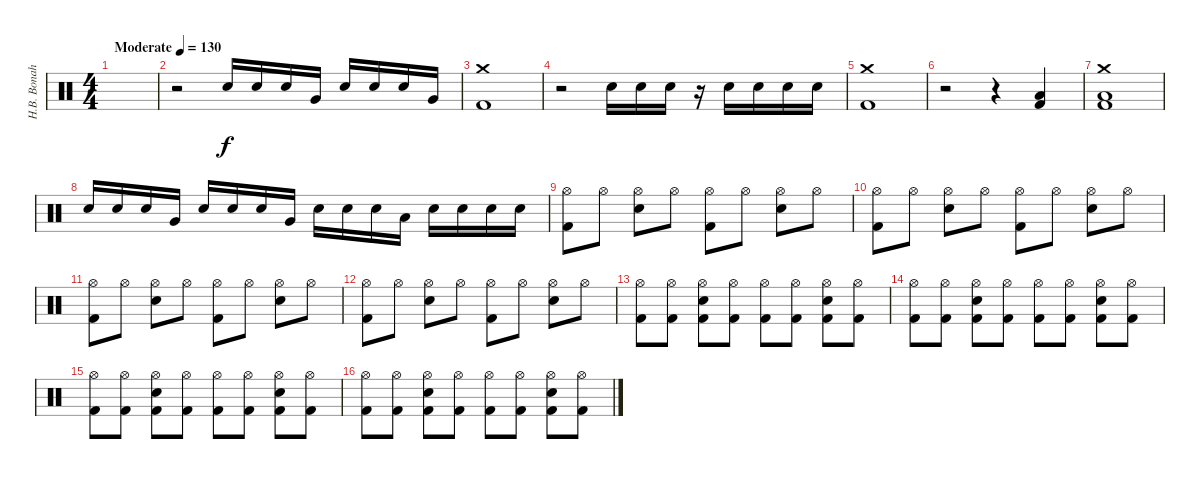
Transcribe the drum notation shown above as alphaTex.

\track ("H.B. Bonah" "H.B. Bonah") {instrument percussion}
\staff {score}
\articulation defaults
\ts (4 4)
\tempo (130 "Moderate")
\clef neutral
\ks c
|
r.2 "Electric Snare (hit)".16 "Electric Snare (hit)".16 "Electric Snare (hit)".16 "Very Low Tom (hit)".16 "Electric Snare (hit)".16 "Electric Snare (hit)".16 "Electric Snare (hit)".16 "Very Low Tom (hit)".16 |
("Crash medium (hit)" "Kick (hit) 2").1 |
r.2 "Electric Snare (hit)".16 "Electric Snare (hit)".16 "Electric Snare (hit)".16 r.16 "Electric Snare (hit)".16 "Electric Snare (hit)".16 "Electric Snare (hit)".16 "Electric Snare (hit)".16 |
("Crash medium (hit)" "Kick (hit) 2").1 |
r.2 r.4 ("Low Tom (hit)" "Kick (hit) 2").4 |
("Crash medium (hit)" "Low Floor Tom (hit)" "Kick (hit) 2").1 |
"Electric Snare (hit)".16 "Electric Snare (hit)".16 "Electric Snare (hit)".16 "Very Low Tom (hit)".16 "Electric Snare (hit)".16 "Electric Snare (hit)".16 "Electric Snare (hit)".16 "Very Low Tom (hit)".16 "Electric Snare (hit)".16 "Electric Snare (hit)".16 "Electric Snare (hit)".16 "Low Floor Tom (hit)".16 "Electric Snare (hit)".16 "Electric Snare (hit)".16 "Electric Snare (hit)".16 "Electric Snare (hit)".16 |
("Hi-Hat (open)" "Kick (hit) 2").8 "Hi-Hat (open)".8 ("Hi-Hat (open)" "Electric Snare (hit)").8 "Hi-Hat (open)".8 ("Hi-Hat (open)" "Kick (hit) 2").8 "Hi-Hat (open)".8 ("Hi-Hat (open)" "Electric Snare (hit)").8 "Hi-Hat (open)".8 |
("Hi-Hat (open)" "Kick (hit) 2").8 "Hi-Hat (open)".8 ("Hi-Hat (open)" "Electric Snare (hit)").8 "Hi-Hat (open)".8 ("Hi-Hat (open)" "Kick (hit) 2").8 "Hi-Hat (open)".8 ("Hi-Hat (open)" "Electric Snare (hit)").8 "Hi-Hat (open)".8 |
("Hi-Hat (open)" "Kick (hit) 2").8 "Hi-Hat (open)".8 ("Hi-Hat (open)" "Electric Snare (hit)").8 "Hi-Hat (open)".8 ("Hi-Hat (open)" "Kick (hit) 2").8 "Hi-Hat (open)".8 ("Hi-Hat (open)" "Electric Snare (hit)").8 "Hi-Hat (open)".8 |
("Hi-Hat (open)" "Kick (hit) 2").8 "Hi-Hat (open)".8 ("Hi-Hat (open)" "Electric Snare (hit)").8 "Hi-Hat (open)".8 ("Hi-Hat (open)" "Kick (hit) 2").8 "Hi-Hat (open)".8 ("Hi-Hat (open)" "Electric Snare (hit)").8 "Hi-Hat (open)".8 |
("Hi-Hat (open)" "Kick (hit) 2").8 ("Hi-Hat (open)" "Kick (hit) 2").8 ("Hi-Hat (open)" "Electric Snare (hit)" "Kick (hit) 2").8 ("Hi-Hat (open)" "Kick (hit) 2").8 ("Hi-Hat (open)" "Kick (hit) 2").8 ("Hi-Hat (open)" "Kick (hit) 2").8 ("Hi-Hat (open)" "Electric Snare (hit)" "Kick (hit) 2").8 ("Hi-Hat (open)" "Kick (hit) 2").8 |
("Hi-Hat (open)" "Kick (hit) 2").8 ("Hi-Hat (open)" "Kick (hit) 2").8 ("Hi-Hat (open)" "Electric Snare (hit)" "Kick (hit) 2").8 ("Hi-Hat (open)" "Kick (hit) 2").8 ("Hi-Hat (open)" "Kick (hit) 2").8 ("Hi-Hat (open)" "Kick (hit) 2").8 ("Hi-Hat (open)" "Electric Snare (hit)" "Kick (hit) 2").8 ("Hi-Hat (open)" "Kick (hit) 2").8 |
("Hi-Hat (open)" "Kick (hit) 2").8 ("Hi-Hat (open)" "Kick (hit) 2").8 ("Hi-Hat (open)" "Electric Snare (hit)" "Kick (hit) 2").8 ("Hi-Hat (open)" "Kick (hit) 2").8 ("Hi-Hat (open)" "Kick (hit) 2").8 ("Hi-Hat (open)" "Kick (hit) 2").8 ("Hi-Hat (open)" "Electric Snare (hit)" "Kick (hit) 2").8 ("Hi-Hat (open)" "Kick (hit) 2").8 |
("Hi-Hat (open)" "Kick (hit) 2").8 ("Hi-Hat (open)" "Kick (hit) 2").8 ("Hi-Hat (open)" "Electric Snare (hit)" "Kick (hit) 2").8 ("Hi-Hat (open)" "Kick (hit) 2").8 ("Hi-Hat (open)" "Kick (hit) 2").8 ("Hi-Hat (open)" "Kick (hit) 2").8 ("Hi-Hat (open)" "Electric Snare (hit)" "Kick (hit) 2").8 ("Hi-Hat (open)" "Kick (hit) 2").8
